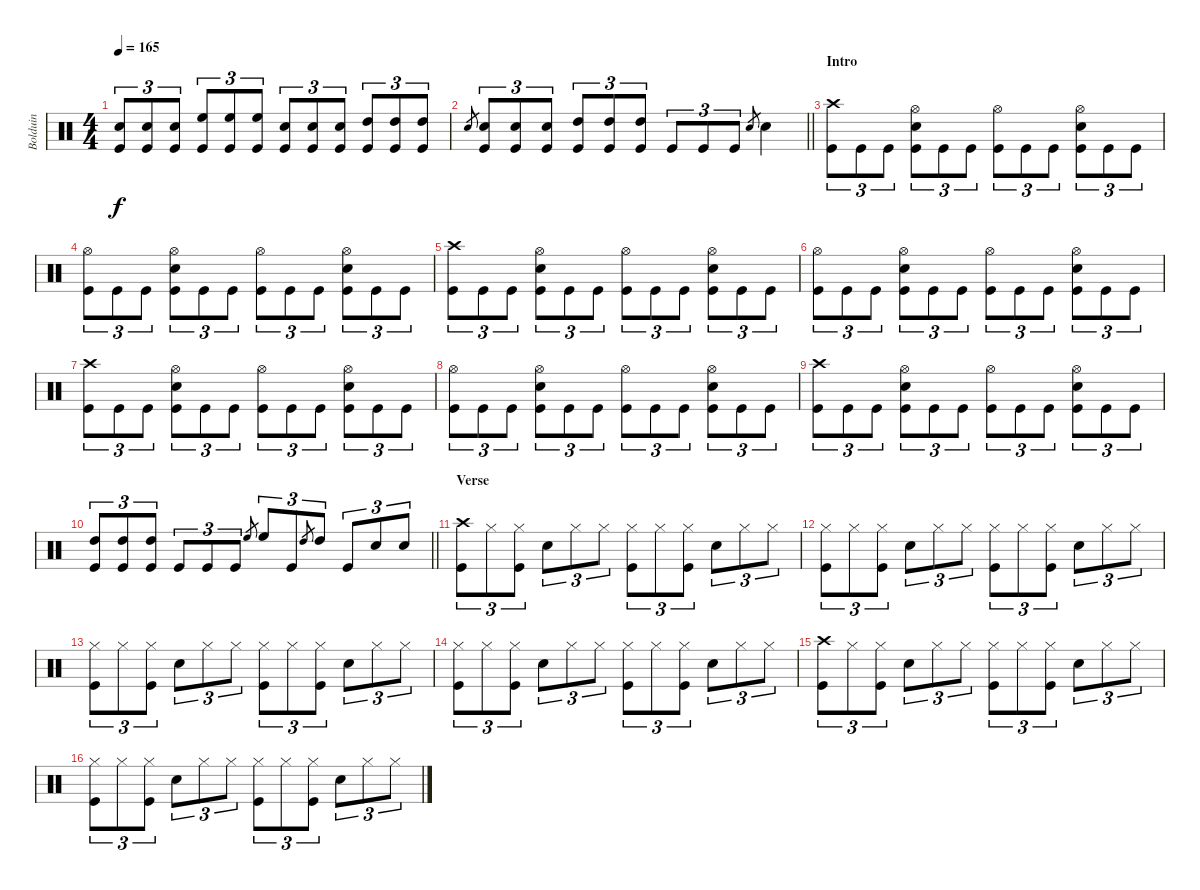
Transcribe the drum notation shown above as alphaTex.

\track ("Bolduin" "Bolduin") {instrument percussion}
\staff {score}
\articulation defaults
\ts (4 4)
\tempo 165
\clef neutral
\ks aminor
("Kick (hit)" "Snare (hit) 2").8{tu (3 2) dy f} ("Kick (hit)" "Snare (hit) 2").8{tu (3 2)} ("Kick (hit)" "Snare (hit) 2").8{tu (3 2)} ("Kick (hit)" "High Floor Tom (hit)").8{tu (3 2)} ("Kick (hit)" "High Floor Tom (hit)").8{tu (3 2)} ("Kick (hit)" "High Floor Tom (hit)").8{tu (3 2)} ("Kick (hit)" "Snare (hit) 2").8{tu (3 2)} ("Kick (hit)" "Snare (hit) 2").8{tu (3 2)} ("Kick (hit)" "Snare (hit) 2").8{tu (3 2)} ("Kick (hit)" "High Tom (hit)").8{tu (3 2)} ("Kick (hit)" "High Tom (hit)").8{tu (3 2)} ("Kick (hit)" "High Tom (hit)").8{tu (3 2)} |
\barLineRight lightlight "Snare (hit) 2".8{gr}
("Kick (hit)" "Snare (hit) 2").8{tu (3 2)} ("Kick (hit)" "Snare (hit) 2").8{tu (3 2)} ("Kick (hit)" "Snare (hit) 2").8{tu (3 2)} ("Kick (hit)" "High Tom (hit)").8{tu (3 2)} ("Kick (hit)" "High Tom (hit)").8{tu (3 2)} ("Kick (hit)" "High Tom (hit)").8{tu (3 2)} "Kick (hit)".8{tu (3 2)} "Kick (hit)".8{tu (3 2)} "Kick (hit)".8{tu (3 2)} "Snare (hit) 2".8{gr} "Snare (hit) 2".4 |
\section ("" "Intro")
("Kick (hit)" "Crash high (hit)").8{tu (3 2)} "Kick (hit)".8{tu (3 2)} "Kick (hit)".8{tu (3 2)} ("Kick (hit)" "Snare (hit) 2" "Hi-Hat (open)").8{tu (3 2)} "Kick (hit)".8{tu (3 2)} "Kick (hit)".8{tu (3 2)} ("Kick (hit)" "Hi-Hat (open)").8{tu (3 2)} "Kick (hit)".8{tu (3 2)} "Kick (hit)".8{tu (3 2)} ("Kick (hit)" "Snare (hit) 2" "Hi-Hat (open)").8{tu (3 2)} "Kick (hit)".8{tu (3 2)} "Kick (hit)".8{tu (3 2)} |
("Kick (hit)" "Hi-Hat (open)").8{tu (3 2)} "Kick (hit)".8{tu (3 2)} "Kick (hit)".8{tu (3 2)} ("Kick (hit)" "Snare (hit) 2" "Hi-Hat (open)").8{tu (3 2)} "Kick (hit)".8{tu (3 2)} "Kick (hit)".8{tu (3 2)} ("Kick (hit)" "Hi-Hat (open)").8{tu (3 2)} "Kick (hit)".8{tu (3 2)} "Kick (hit)".8{tu (3 2)} ("Kick (hit)" "Snare (hit) 2" "Hi-Hat (open)").8{tu (3 2)} "Kick (hit)".8{tu (3 2)} "Kick (hit)".8{tu (3 2)} |
("Kick (hit)" "Crash high (hit)").8{tu (3 2)} "Kick (hit)".8{tu (3 2)} "Kick (hit)".8{tu (3 2)} ("Kick (hit)" "Snare (hit) 2" "Hi-Hat (open)").8{tu (3 2)} "Kick (hit)".8{tu (3 2)} "Kick (hit)".8{tu (3 2)} ("Kick (hit)" "Hi-Hat (open)").8{tu (3 2)} "Kick (hit)".8{tu (3 2)} "Kick (hit)".8{tu (3 2)} ("Kick (hit)" "Snare (hit) 2" "Hi-Hat (open)").8{tu (3 2)} "Kick (hit)".8{tu (3 2)} "Kick (hit)".8{tu (3 2)} |
("Kick (hit)" "Hi-Hat (open)").8{tu (3 2)} "Kick (hit)".8{tu (3 2)} "Kick (hit)".8{tu (3 2)} ("Kick (hit)" "Snare (hit) 2" "Hi-Hat (open)").8{tu (3 2)} "Kick (hit)".8{tu (3 2)} "Kick (hit)".8{tu (3 2)} ("Kick (hit)" "Hi-Hat (open)").8{tu (3 2)} "Kick (hit)".8{tu (3 2)} "Kick (hit)".8{tu (3 2)} ("Kick (hit)" "Snare (hit) 2" "Hi-Hat (open)").8{tu (3 2)} "Kick (hit)".8{tu (3 2)} "Kick (hit)".8{tu (3 2)} |
("Kick (hit)" "Crash high (hit)").8{tu (3 2)} "Kick (hit)".8{tu (3 2)} "Kick (hit)".8{tu (3 2)} ("Kick (hit)" "Snare (hit) 2" "Hi-Hat (open)").8{tu (3 2)} "Kick (hit)".8{tu (3 2)} "Kick (hit)".8{tu (3 2)} ("Kick (hit)" "Hi-Hat (open)").8{tu (3 2)} "Kick (hit)".8{tu (3 2)} "Kick (hit)".8{tu (3 2)} ("Kick (hit)" "Snare (hit) 2" "Hi-Hat (open)").8{tu (3 2)} "Kick (hit)".8{tu (3 2)} "Kick (hit)".8{tu (3 2)} |
("Kick (hit)" "Hi-Hat (open)").8{tu (3 2)} "Kick (hit)".8{tu (3 2)} "Kick (hit)".8{tu (3 2)} ("Kick (hit)" "Snare (hit) 2" "Hi-Hat (open)").8{tu (3 2)} "Kick (hit)".8{tu (3 2)} "Kick (hit)".8{tu (3 2)} ("Kick (hit)" "Hi-Hat (open)").8{tu (3 2)} "Kick (hit)".8{tu (3 2)} "Kick (hit)".8{tu (3 2)} ("Kick (hit)" "Snare (hit) 2" "Hi-Hat (open)").8{tu (3 2)} "Kick (hit)".8{tu (3 2)} "Kick (hit)".8{tu (3 2)} |
("Kick (hit)" "Crash high (hit)").8{tu (3 2)} "Kick (hit)".8{tu (3 2)} "Kick (hit)".8{tu (3 2)} ("Kick (hit)" "Snare (hit) 2" "Hi-Hat (open)").8{tu (3 2)} "Kick (hit)".8{tu (3 2)} "Kick (hit)".8{tu (3 2)} ("Kick (hit)" "Hi-Hat (open)").8{tu (3 2)} "Kick (hit)".8{tu (3 2)} "Kick (hit)".8{tu (3 2)} ("Kick (hit)" "Snare (hit) 2" "Hi-Hat (open)").8{tu (3 2)} "Kick (hit)".8{tu (3 2)} "Kick (hit)".8{tu (3 2)} |
\barLineRight lightlight
("Kick (hit)" "High Tom (hit)").8{tu (3 2)} ("Kick (hit)" "High Tom (hit)").8{tu (3 2)} ("Kick (hit)" "High Tom (hit)").8{tu (3 2)} "Kick (hit)".8{tu (3 2)} "Kick (hit)".8{tu (3 2)} "Kick (hit)".8{tu (3 2)} "High Floor Tom (hit)".8{gr} "High Floor Tom (hit)".8{tu (3 2)} "Kick (hit)".8{tu (3 2)} "High Tom (hit)".8{gr} "High Tom (hit)".8{tu (3 2)} "Kick (hit)".8{tu (3 2)} "Snare (hit) 2".8{tu (3 2)} "Snare (hit) 2".8{tu (3 2)} |
\section ("" "Verse")
("Kick (hit)" "Crash high (hit)").8{tu (3 2)} "Hi-Hat (closed)".8{tu (3 2)} ("Kick (hit)" "Hi-Hat (closed)").8{tu (3 2)} "Snare (hit) 2".8{tu (3 2)} "Hi-Hat (closed)".8{tu (3 2)} "Hi-Hat (closed)".8{tu (3 2)} ("Kick (hit)" "Hi-Hat (closed)").8{tu (3 2)} "Hi-Hat (closed)".8{tu (3 2)} ("Kick (hit)" "Hi-Hat (closed)").8{tu (3 2)} "Snare (hit) 2".8{tu (3 2)} "Hi-Hat (closed)".8{tu (3 2)} "Hi-Hat (closed)".8{tu (3 2)} |
("Kick (hit)" "Hi-Hat (closed)").8{tu (3 2)} "Hi-Hat (closed)".8{tu (3 2)} ("Kick (hit)" "Hi-Hat (closed)").8{tu (3 2)} "Snare (hit) 2".8{tu (3 2)} "Hi-Hat (closed)".8{tu (3 2)} "Hi-Hat (closed)".8{tu (3 2)} ("Kick (hit)" "Hi-Hat (closed)").8{tu (3 2)} "Hi-Hat (closed)".8{tu (3 2)} ("Kick (hit)" "Hi-Hat (closed)").8{tu (3 2)} "Snare (hit) 2".8{tu (3 2)} "Hi-Hat (closed)".8{tu (3 2)} "Hi-Hat (closed)".8{tu (3 2)} |
("Kick (hit)" "Hi-Hat (closed)").8{tu (3 2)} "Hi-Hat (closed)".8{tu (3 2)} ("Kick (hit)" "Hi-Hat (closed)").8{tu (3 2)} "Snare (hit) 2".8{tu (3 2)} "Hi-Hat (closed)".8{tu (3 2)} "Hi-Hat (closed)".8{tu (3 2)} ("Kick (hit)" "Hi-Hat (closed)").8{tu (3 2)} "Hi-Hat (closed)".8{tu (3 2)} ("Kick (hit)" "Hi-Hat (closed)").8{tu (3 2)} "Snare (hit) 2".8{tu (3 2)} "Hi-Hat (closed)".8{tu (3 2)} "Hi-Hat (closed)".8{tu (3 2)} |
("Kick (hit)" "Hi-Hat (closed)").8{tu (3 2)} "Hi-Hat (closed)".8{tu (3 2)} ("Kick (hit)" "Hi-Hat (closed)").8{tu (3 2)} "Snare (hit) 2".8{tu (3 2)} "Hi-Hat (closed)".8{tu (3 2)} "Hi-Hat (closed)".8{tu (3 2)} ("Kick (hit)" "Hi-Hat (closed)").8{tu (3 2)} "Hi-Hat (closed)".8{tu (3 2)} ("Kick (hit)" "Hi-Hat (closed)").8{tu (3 2)} "Snare (hit) 2".8{tu (3 2)} "Hi-Hat (closed)".8{tu (3 2)} "Hi-Hat (closed)".8{tu (3 2)} |
("Kick (hit)" "Crash high (hit)").8{tu (3 2)} "Hi-Hat (closed)".8{tu (3 2)} ("Kick (hit)" "Hi-Hat (closed)").8{tu (3 2)} "Snare (hit) 2".8{tu (3 2)} "Hi-Hat (closed)".8{tu (3 2)} "Hi-Hat (closed)".8{tu (3 2)} ("Kick (hit)" "Hi-Hat (closed)").8{tu (3 2)} "Hi-Hat (closed)".8{tu (3 2)} ("Kick (hit)" "Hi-Hat (closed)").8{tu (3 2)} "Snare (hit) 2".8{tu (3 2)} "Hi-Hat (closed)".8{tu (3 2)} "Hi-Hat (closed)".8{tu (3 2)} |
("Kick (hit)" "Hi-Hat (closed)").8{tu (3 2)} "Hi-Hat (closed)".8{tu (3 2)} ("Kick (hit)" "Hi-Hat (closed)").8{tu (3 2)} "Snare (hit) 2".8{tu (3 2)} "Hi-Hat (closed)".8{tu (3 2)} "Hi-Hat (closed)".8{tu (3 2)} ("Kick (hit)" "Hi-Hat (closed)").8{tu (3 2)} "Hi-Hat (closed)".8{tu (3 2)} ("Kick (hit)" "Hi-Hat (closed)").8{tu (3 2)} "Snare (hit) 2".8{tu (3 2)} "Hi-Hat (closed)".8{tu (3 2)} "Hi-Hat (closed)".8{tu (3 2)}
